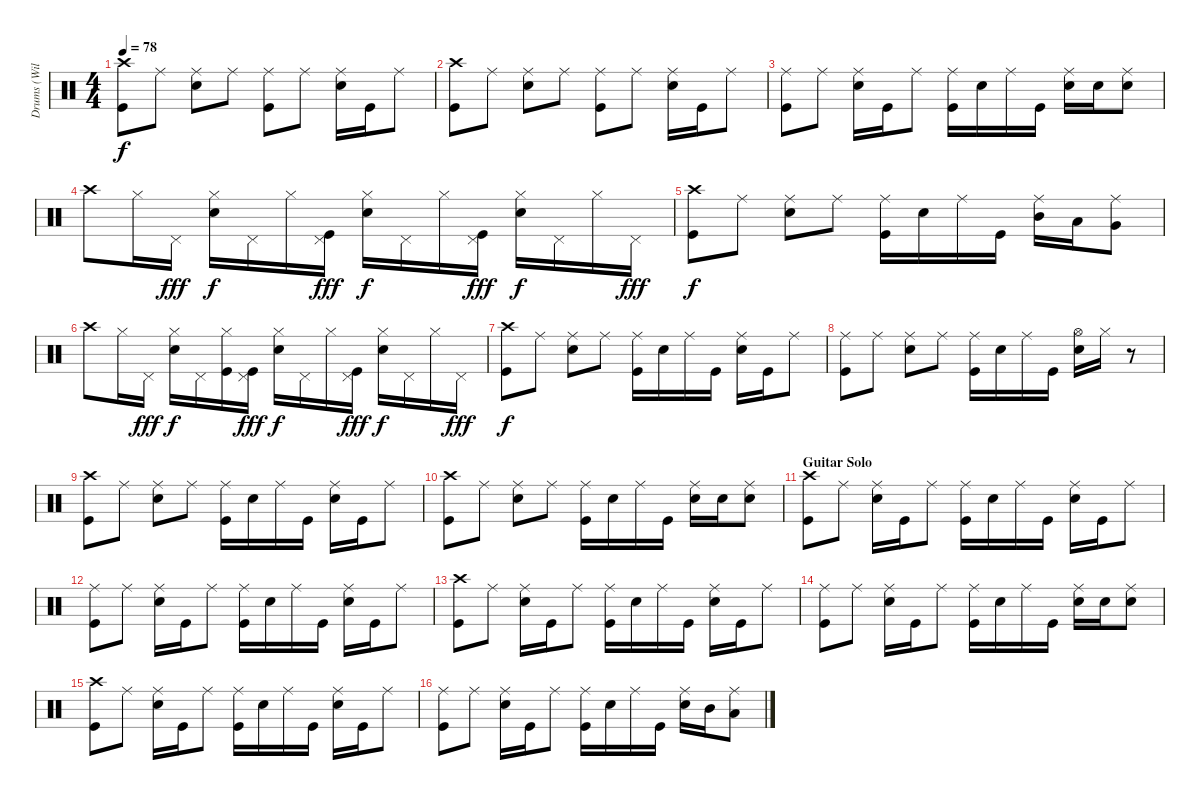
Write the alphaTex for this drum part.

\track ("Drums (William Ward)" "Drums (Wil") {instrument percussion}
\staff {score}
\articulation defaults
\ts (4 4)
\tempo 78
\clef neutral
\ks c
("Crash high (hit)" "Kick (hit)").8{dy f} "Ride (middle)".8 ("Ride (middle)" "Electric Snare (hit)").8 "Ride (middle)".8 ("Ride (middle)" "Kick (hit)").8 "Ride (middle)".8 ("Ride (middle)" "Electric Snare (hit)").16 "Kick (hit)".16 "Ride (middle)".8 |
("Crash high (hit)" "Kick (hit)").8 "Ride (middle)".8 ("Ride (middle)" "Electric Snare (hit)").8 "Ride (middle)".8 ("Ride (middle)" "Kick (hit)").8 "Ride (middle)".8 ("Ride (middle)" "Electric Snare (hit)").16 "Kick (hit)".16 "Ride (middle)".8 |
("Ride (middle)" "Kick (hit)").8 "Ride (middle)".8 ("Ride (middle)" "Electric Snare (hit)").16 "Kick (hit)".16 "Ride (middle)".8 ("Ride (middle)" "Kick (hit)").16 "Electric Snare (hit)".16 "Ride (middle)".16 "Kick (hit)".16 ("Ride (middle)" "Electric Snare (hit)").16 "Electric Snare (hit)".16 ("Ride (middle)" "Electric Snare (hit)").8 |
"Crash high (hit)".8 "Hi-Hat (closed)".16 "Pedal Hi-Hat (hit)".16{dy fff} ("Hi-Hat (closed)" "Electric Snare (hit)").16{dy f} "Pedal Hi-Hat (hit)".16 "Hi-Hat (closed)".16 ("Pedal Hi-Hat (hit)" "Kick (hit)").16{dy fff} ("Hi-Hat (closed)" "Electric Snare (hit)").16{dy f} "Pedal Hi-Hat (hit)".16 "Hi-Hat (closed)".16 ("Pedal Hi-Hat (hit)" "Kick (hit)").16{dy fff} ("Hi-Hat (closed)" "Electric Snare (hit)").16{dy f} "Pedal Hi-Hat (hit)".16 "Hi-Hat (closed)".16 "Pedal Hi-Hat (hit)".16{dy fff} |
("Crash high (hit)" "Kick (hit)").8{dy f} "Ride (middle)".8 ("Ride (middle)" "Electric Snare (hit)").8 "Ride (middle)".8 ("Ride (middle)" "Kick (hit)").16 "Electric Snare (hit)".16 "Ride (middle)".16 "Kick (hit)".16 ("Ride (middle)" "Mid Tom (hit)").16 "Low Tom (hit)".16 ("Ride (middle)" "Very Low Tom (hit)").8 |
"Crash high (hit)".8 "Hi-Hat (closed)".16 "Pedal Hi-Hat (hit)".16{dy fff} ("Hi-Hat (closed)" "Electric Snare (hit)").16{dy f} "Pedal Hi-Hat (hit)".16 ("Hi-Hat (closed)" "Kick (hit)").16 ("Pedal Hi-Hat (hit)" "Kick (hit)").16{dy fff} ("Hi-Hat (closed)" "Electric Snare (hit)").16{dy f} "Pedal Hi-Hat (hit)".16 "Hi-Hat (closed)".16 ("Pedal Hi-Hat (hit)" "Kick (hit)").16{dy fff} ("Hi-Hat (closed)" "Electric Snare (hit)").16{dy f} "Pedal Hi-Hat (hit)".16 "Hi-Hat (closed)".16 "Pedal Hi-Hat (hit)".16{dy fff} |
("Crash high (hit)" "Kick (hit)").8{dy f} "Ride (middle)".8 ("Ride (middle)" "Electric Snare (hit)").8 "Ride (middle)".8 ("Ride (middle)" "Kick (hit)").16 "Electric Snare (hit)".16 "Ride (middle)".16 "Kick (hit)".16 ("Ride (middle)" "Electric Snare (hit)").16 "Kick (hit)".16 "Ride (middle)".8 |
("Ride (middle)" "Kick (hit)").8 "Ride (middle)".8 ("Ride (middle)" "Electric Snare (hit)").8 "Ride (middle)".8 ("Ride (middle)" "Kick (hit)").16 "Electric Snare (hit)".16 "Ride (middle)".16 "Kick (hit)".16 ("Hi-Hat (open)" "Electric Snare (hit)").16 "Hi-Hat (closed)".16 r.8 |
("Crash high (hit)" "Kick (hit)").8 "Ride (middle)".8 ("Ride (middle)" "Electric Snare (hit)").8 "Ride (middle)".8 ("Ride (middle)" "Kick (hit)").16 "Electric Snare (hit)".16 "Ride (middle)".16 "Kick (hit)".16 ("Ride (middle)" "Electric Snare (hit)").16 "Kick (hit)".16 "Ride (middle)".8 |
("Crash high (hit)" "Kick (hit)").8 "Ride (middle)".8 ("Ride (middle)" "Electric Snare (hit)").8 "Ride (middle)".8 ("Ride (middle)" "Kick (hit)").16 "Electric Snare (hit)".16 "Ride (middle)".16 "Kick (hit)".16 ("Ride (middle)" "Electric Snare (hit)").16 "Electric Snare (hit)".16 ("Ride (middle)" "Electric Snare (hit)").8 |
\section ("" "Guitar Solo")
("Crash high (hit)" "Kick (hit)").8 "Ride (middle)".8 ("Ride (middle)" "Electric Snare (hit)").16 "Kick (hit)".16 "Ride (middle)".8 ("Ride (middle)" "Kick (hit)").16 "Electric Snare (hit)".16 "Ride (middle)".16 "Kick (hit)".16 ("Ride (middle)" "Electric Snare (hit)").16 "Kick (hit)".16 "Ride (middle)".8 |
("Ride (middle)" "Kick (hit)").8 "Ride (middle)".8 ("Ride (middle)" "Electric Snare (hit)").16 "Kick (hit)".16 "Ride (middle)".8 ("Ride (middle)" "Kick (hit)").16 "Electric Snare (hit)".16 "Ride (middle)".16 "Kick (hit)".16 ("Ride (middle)" "Electric Snare (hit)").16 "Kick (hit)".16 "Ride (middle)".8 |
("Crash high (hit)" "Kick (hit)").8 "Ride (middle)".8 ("Ride (middle)" "Electric Snare (hit)").16 "Kick (hit)".16 "Ride (middle)".8 ("Ride (middle)" "Kick (hit)").16 "Electric Snare (hit)".16 "Ride (middle)".16 "Kick (hit)".16 ("Ride (middle)" "Electric Snare (hit)").16 "Kick (hit)".16 "Ride (middle)".8 |
("Ride (middle)" "Kick (hit)").8 "Ride (middle)".8 ("Ride (middle)" "Electric Snare (hit)").16 "Kick (hit)".16 "Ride (middle)".8 ("Ride (middle)" "Kick (hit)").16 "Electric Snare (hit)".16 "Ride (middle)".16 "Kick (hit)".16 ("Ride (middle)" "Electric Snare (hit)").16 "Electric Snare (hit)".16 ("Ride (middle)" "Electric Snare (hit)").8 |
("Crash high (hit)" "Kick (hit)").8 "Ride (middle)".8 ("Ride (middle)" "Electric Snare (hit)").16 "Kick (hit)".16 "Ride (middle)".8 ("Ride (middle)" "Kick (hit)").16 "Electric Snare (hit)".16 "Ride (middle)".16 "Kick (hit)".16 ("Ride (middle)" "Electric Snare (hit)").16 "Kick (hit)".16 "Ride (middle)".8 |
("Ride (middle)" "Kick (hit)").8 "Ride (middle)".8 ("Ride (middle)" "Electric Snare (hit)").16 "Kick (hit)".16 "Ride (middle)".8 ("Ride (middle)" "Kick (hit)").16 "Electric Snare (hit)".16 "Ride (middle)".16 "Kick (hit)".16 ("Ride (middle)" "Electric Snare (hit)").16 "Mid Tom (hit)".16 ("Ride (middle)" "Low Tom (hit)").8
